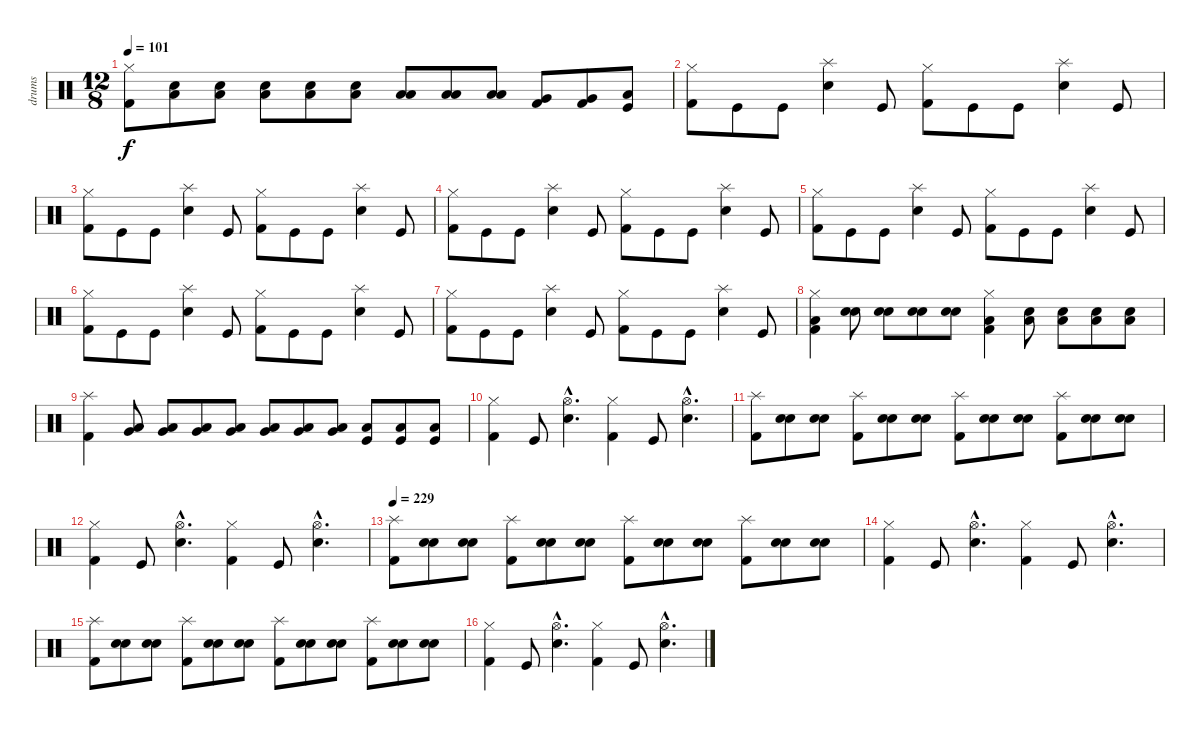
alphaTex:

\track ("drums" "drums") {instrument percussion}
\staff {score}
\articulation defaults
\ts (12 8)
\tempo 101
\clef neutral
\ks c
("Hi-Hat (closed)" "Kick (hit) 2").8{dy f} ("Electric Snare (hit)" "Low Tom (hit)").8 ("Low Tom (hit)" "Snare (hit) 2").8 ("Low Tom (hit)" "Snare (hit) 2").8 ("Low Tom (hit)" "Snare (hit) 2").8 ("Low Tom (hit)" "Snare (hit) 2").8 ("Low Tom (hit)" "Low Floor Tom (hit)").8 ("Low Floor Tom (hit)" "Low Tom (hit)").8 ("Low Floor Tom (hit)" "Low Tom (hit)").8 ("Kick (hit) 2" "Very Low Tom (hit)").8 ("Kick (hit) 2" "Very Low Tom (hit)").8 ("Kick (hit)" "Low Floor Tom (hit)").8 |
("Hi-Hat (closed)" "Kick (hit) 2").8 "Kick (hit)".8 "Kick (hit)".8 ("Splash (hit)" "Snare (hit) 2").4 "Kick (hit)".8 ("Hi-Hat (closed)" "Kick (hit) 2").8 "Kick (hit)".8 "Kick (hit)".8 ("Splash (hit)" "Snare (hit) 2").4 "Kick (hit)".8 |
("Hi-Hat (closed)" "Kick (hit) 2").8 "Kick (hit)".8 "Kick (hit)".8 ("Splash (hit)" "Snare (hit) 2").4 "Kick (hit)".8 ("Hi-Hat (closed)" "Kick (hit) 2").8 "Kick (hit)".8 "Kick (hit)".8 ("Splash (hit)" "Snare (hit) 2").4 "Kick (hit)".8 |
("Hi-Hat (closed)" "Kick (hit) 2").8 "Kick (hit)".8 "Kick (hit)".8 ("Splash (hit)" "Snare (hit) 2").4 "Kick (hit)".8 ("Hi-Hat (closed)" "Kick (hit) 2").8 "Kick (hit)".8 "Kick (hit)".8 ("Splash (hit)" "Snare (hit) 2").4 "Kick (hit)".8 |
("Hi-Hat (closed)" "Kick (hit) 2").8 "Kick (hit)".8 "Kick (hit)".8 ("Splash (hit)" "Snare (hit) 2").4 "Kick (hit)".8 ("Hi-Hat (closed)" "Kick (hit) 2").8 "Kick (hit)".8 "Kick (hit)".8 ("Splash (hit)" "Snare (hit) 2").4 "Kick (hit)".8 |
("Hi-Hat (closed)" "Kick (hit) 2").8 "Kick (hit)".8 "Kick (hit)".8 ("Splash (hit)" "Snare (hit) 2").4 "Kick (hit)".8 ("Hi-Hat (closed)" "Kick (hit) 2").8 "Kick (hit)".8 "Kick (hit)".8 ("Splash (hit)" "Snare (hit) 2").4 "Kick (hit)".8 |
("Hi-Hat (closed)" "Kick (hit) 2").8 "Kick (hit)".8 "Kick (hit)".8 ("Splash (hit)" "Snare (hit) 2").4 "Kick (hit)".8 ("Hi-Hat (closed)" "Kick (hit) 2").8 "Kick (hit)".8 "Kick (hit)".8 ("Splash (hit)" "Snare (hit) 2").4 "Kick (hit)".8 |
("Low Floor Tom (hit)" "Hi-Hat (closed)" "Kick (hit) 2").4 ("Electric Snare (hit)" "Snare (hit) 2").8 ("Electric Snare (hit)" "Snare (hit) 2").8 ("Electric Snare (hit)" "Snare (hit) 2").8 ("Electric Snare (hit)" "Snare (hit) 2").8 ("Low Floor Tom (hit)" "Hi-Hat (closed)" "Kick (hit) 2").4 ("Low Tom (hit)" "Snare (hit) 2").8 ("Low Tom (hit)" "Snare (hit) 2").8 ("Low Tom (hit)" "Snare (hit) 2").8 ("Low Tom (hit)" "Snare (hit) 2").8 |
("Splash (hit)" "Kick (hit) 2").4 ("Very Low Tom (hit)" "Low Tom (hit)").8 ("Very Low Tom (hit)" "Low Tom (hit)").8 ("Very Low Tom (hit)" "Low Tom (hit)").8 ("Very Low Tom (hit)" "Low Tom (hit)").8 ("Low Floor Tom (hit)" "Very Low Tom (hit)").8 ("Low Floor Tom (hit)" "Very Low Tom (hit)").8 ("Low Floor Tom (hit)" "Very Low Tom (hit)").8 ("Kick (hit)" "Low Floor Tom (hit)").8 ("Kick (hit)" "Low Floor Tom (hit)").8 ("Kick (hit)" "Low Floor Tom (hit)").8 |
("Hi-Hat (closed)" "Kick (hit) 2").4 "Kick (hit)".8 ("Hi-Hat (open)"{hac} "Snare (hit) 2"{hac}).4{d} ("Hi-Hat (closed)" "Kick (hit) 2").4 "Kick (hit)".8 ("Hi-Hat (open)"{hac} "Snare (hit) 2"{hac}).4{d} |
("Splash (hit)" "Kick (hit) 2").8 ("Electric Snare (hit)" "Snare (hit) 2").8 ("Electric Snare (hit)" "Snare (hit) 2").8 ("Splash (hit)" "Kick (hit) 2").8 ("Electric Snare (hit)" "Snare (hit) 2").8 ("Electric Snare (hit)" "Snare (hit) 2").8 ("Splash (hit)" "Kick (hit) 2").8 ("Electric Snare (hit)" "Snare (hit) 2").8 ("Electric Snare (hit)" "Snare (hit) 2").8 ("Splash (hit)" "Kick (hit) 2").8 ("Snare (hit) 2" "Electric Snare (hit)").8 ("Snare (hit) 2" "Electric Snare (hit)").8 |
("Hi-Hat (closed)" "Kick (hit) 2").4 "Kick (hit)".8 ("Hi-Hat (open)"{hac} "Snare (hit) 2"{hac}).4{d} ("Hi-Hat (closed)" "Kick (hit) 2").4 "Kick (hit)".8 ("Hi-Hat (open)"{hac} "Snare (hit) 2"{hac}).4{d} |
\tempo 229
("Splash (hit)" "Kick (hit) 2").8 ("Electric Snare (hit)" "Snare (hit) 2").8 ("Electric Snare (hit)" "Snare (hit) 2").8 ("Splash (hit)" "Kick (hit) 2").8 ("Electric Snare (hit)" "Snare (hit) 2").8 ("Electric Snare (hit)" "Snare (hit) 2").8 ("Splash (hit)" "Kick (hit) 2").8 ("Electric Snare (hit)" "Snare (hit) 2").8 ("Electric Snare (hit)" "Snare (hit) 2").8 ("Splash (hit)" "Kick (hit) 2").8 ("Snare (hit) 2" "Electric Snare (hit)").8 ("Snare (hit) 2" "Electric Snare (hit)").8 |
("Hi-Hat (closed)" "Kick (hit) 2").4 "Kick (hit)".8 ("Hi-Hat (open)"{hac} "Snare (hit) 2"{hac}).4{d} ("Hi-Hat (closed)" "Kick (hit) 2").4 "Kick (hit)".8 ("Hi-Hat (open)"{hac} "Snare (hit) 2"{hac}).4{d} |
("Splash (hit)" "Kick (hit) 2").8 ("Electric Snare (hit)" "Snare (hit) 2").8 ("Electric Snare (hit)" "Snare (hit) 2").8 ("Splash (hit)" "Kick (hit) 2").8 ("Electric Snare (hit)" "Snare (hit) 2").8 ("Electric Snare (hit)" "Snare (hit) 2").8 ("Splash (hit)" "Kick (hit) 2").8 ("Electric Snare (hit)" "Snare (hit) 2").8 ("Electric Snare (hit)" "Snare (hit) 2").8 ("Splash (hit)" "Kick (hit) 2").8 ("Snare (hit) 2" "Electric Snare (hit)").8 ("Snare (hit) 2" "Electric Snare (hit)").8 |
("Hi-Hat (closed)" "Kick (hit) 2").4 "Kick (hit)".8 ("Hi-Hat (open)"{hac} "Snare (hit) 2"{hac}).4{d} ("Hi-Hat (closed)" "Kick (hit) 2").4 "Kick (hit)".8 ("Hi-Hat (open)"{hac} "Snare (hit) 2"{hac}).4{d}
